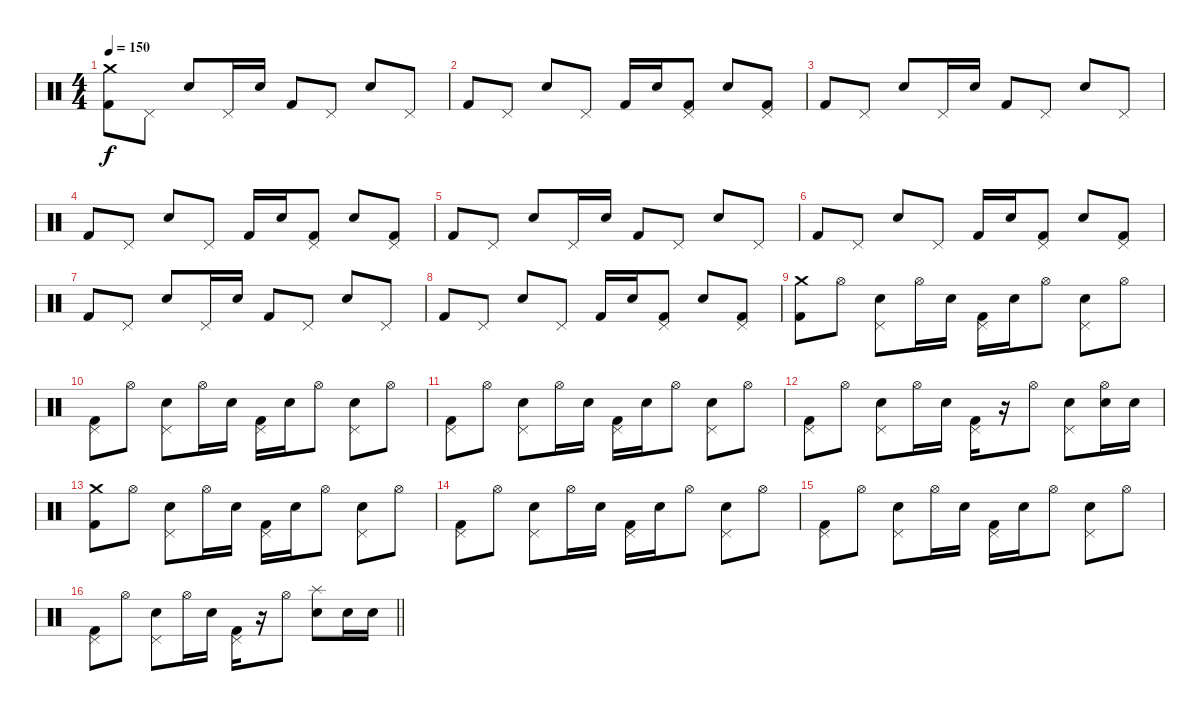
\track "" {instrument percussion}
\staff {score}
\articulation defaults
\ts (4 4)
\tempo 150
\clef neutral
\ks c
("Crash medium (hit)" "Kick (hit) 2").8{dy f} "Pedal Hi-Hat (hit)".8 "Snare (hit) 2".8 "Pedal Hi-Hat (hit)".16 "Snare (hit) 2".16 "Kick (hit) 2".8 "Pedal Hi-Hat (hit)".8 "Snare (hit) 2".8 "Pedal Hi-Hat (hit)".8 |
"Kick (hit) 2".8 "Pedal Hi-Hat (hit)".8 "Snare (hit) 2".8 "Pedal Hi-Hat (hit)".8 "Kick (hit) 2".16 "Snare (hit) 2".16 ("Pedal Hi-Hat (hit)" "Kick (hit) 2").8 "Snare (hit) 2".8 ("Pedal Hi-Hat (hit)" "Kick (hit) 2").8 |
"Kick (hit) 2".8 "Pedal Hi-Hat (hit)".8 "Snare (hit) 2".8 "Pedal Hi-Hat (hit)".16 "Snare (hit) 2".16 "Kick (hit) 2".8 "Pedal Hi-Hat (hit)".8 "Snare (hit) 2".8 "Pedal Hi-Hat (hit)".8 |
"Kick (hit) 2".8 "Pedal Hi-Hat (hit)".8 "Snare (hit) 2".8 "Pedal Hi-Hat (hit)".8 "Kick (hit) 2".16 "Snare (hit) 2".16 ("Pedal Hi-Hat (hit)" "Kick (hit) 2").8 "Snare (hit) 2".8 ("Pedal Hi-Hat (hit)" "Kick (hit) 2").8 |
"Kick (hit) 2".8 "Pedal Hi-Hat (hit)".8 "Snare (hit) 2".8 "Pedal Hi-Hat (hit)".16 "Snare (hit) 2".16 "Kick (hit) 2".8 "Pedal Hi-Hat (hit)".8 "Snare (hit) 2".8 "Pedal Hi-Hat (hit)".8 |
"Kick (hit) 2".8 "Pedal Hi-Hat (hit)".8 "Snare (hit) 2".8 "Pedal Hi-Hat (hit)".8 "Kick (hit) 2".16 "Snare (hit) 2".16 ("Pedal Hi-Hat (hit)" "Kick (hit) 2").8 "Snare (hit) 2".8 ("Pedal Hi-Hat (hit)" "Kick (hit) 2").8 |
"Kick (hit) 2".8 "Pedal Hi-Hat (hit)".8 "Snare (hit) 2".8 "Pedal Hi-Hat (hit)".16 "Snare (hit) 2".16 "Kick (hit) 2".8 "Pedal Hi-Hat (hit)".8 "Snare (hit) 2".8 "Pedal Hi-Hat (hit)".8 |
"Kick (hit) 2".8 "Pedal Hi-Hat (hit)".8 "Snare (hit) 2".8 "Pedal Hi-Hat (hit)".8 "Kick (hit) 2".16 "Snare (hit) 2".16 ("Pedal Hi-Hat (hit)" "Kick (hit) 2").8 "Snare (hit) 2".8 ("Pedal Hi-Hat (hit)" "Kick (hit) 2").8 |
("Crash medium (hit)" "Kick (hit) 2").8 "Hi-Hat (open)".8 ("Pedal Hi-Hat (hit)" "Snare (hit) 2").8 "Hi-Hat (open)".16 "Snare (hit) 2".16 ("Pedal Hi-Hat (hit)" "Kick (hit) 2").16 "Snare (hit) 2".16 "Hi-Hat (open)".8 ("Pedal Hi-Hat (hit)" "Snare (hit) 2").8 "Hi-Hat (open)".8 |
("Pedal Hi-Hat (hit)" "Kick (hit) 2").8 "Hi-Hat (open)".8 ("Pedal Hi-Hat (hit)" "Snare (hit) 2").8 "Hi-Hat (open)".16 "Snare (hit) 2".16 ("Pedal Hi-Hat (hit)" "Kick (hit) 2").16 "Snare (hit) 2".16 "Hi-Hat (open)".8 ("Pedal Hi-Hat (hit)" "Snare (hit) 2").8 "Hi-Hat (open)".8 |
("Pedal Hi-Hat (hit)" "Kick (hit) 2").8 "Hi-Hat (open)".8 ("Pedal Hi-Hat (hit)" "Snare (hit) 2").8 "Hi-Hat (open)".16 "Snare (hit) 2".16 ("Pedal Hi-Hat (hit)" "Kick (hit) 2").16 "Snare (hit) 2".16 "Hi-Hat (open)".8 ("Pedal Hi-Hat (hit)" "Snare (hit) 2").8 "Hi-Hat (open)".8 |
("Pedal Hi-Hat (hit)" "Kick (hit) 2").8 "Hi-Hat (open)".8 ("Pedal Hi-Hat (hit)" "Snare (hit) 2").8 "Hi-Hat (open)".16 "Snare (hit) 2".16 ("Pedal Hi-Hat (hit)" "Kick (hit) 2").16 r.16 "Hi-Hat (open)".8 ("Pedal Hi-Hat (hit)" "Snare (hit) 2").8 ("Hi-Hat (open)" "Snare (hit) 2").16 "Snare (hit) 2".16 |
("Crash medium (hit)" "Kick (hit) 2").8 "Hi-Hat (open)".8 ("Pedal Hi-Hat (hit)" "Snare (hit) 2").8 "Hi-Hat (open)".16 "Snare (hit) 2".16 ("Pedal Hi-Hat (hit)" "Kick (hit) 2").16 "Snare (hit) 2".16 "Hi-Hat (open)".8 ("Pedal Hi-Hat (hit)" "Snare (hit) 2").8 "Hi-Hat (open)".8 |
("Pedal Hi-Hat (hit)" "Kick (hit) 2").8 "Hi-Hat (open)".8 ("Pedal Hi-Hat (hit)" "Snare (hit) 2").8 "Hi-Hat (open)".16 "Snare (hit) 2".16 ("Pedal Hi-Hat (hit)" "Kick (hit) 2").16 "Snare (hit) 2".16 "Hi-Hat (open)".8 ("Pedal Hi-Hat (hit)" "Snare (hit) 2").8 "Hi-Hat (open)".8 |
("Pedal Hi-Hat (hit)" "Kick (hit) 2").8 "Hi-Hat (open)".8 ("Pedal Hi-Hat (hit)" "Snare (hit) 2").8 "Hi-Hat (open)".16 "Snare (hit) 2".16 ("Pedal Hi-Hat (hit)" "Kick (hit) 2").16 "Snare (hit) 2".16 "Hi-Hat (open)".8 ("Pedal Hi-Hat (hit)" "Snare (hit) 2").8 "Hi-Hat (open)".8 |
\barLineRight lightlight
("Pedal Hi-Hat (hit)" "Kick (hit) 2").8 "Hi-Hat (open)".8 ("Pedal Hi-Hat (hit)" "Snare (hit) 2").8 "Hi-Hat (open)".16 "Snare (hit) 2".16 ("Pedal Hi-Hat (hit)" "Kick (hit) 2").16 r.16 "Hi-Hat (open)".8 ("Splash (hit)" "Snare (hit) 2").8 "Snare (hit) 2".16 "Snare (hit) 2".16
